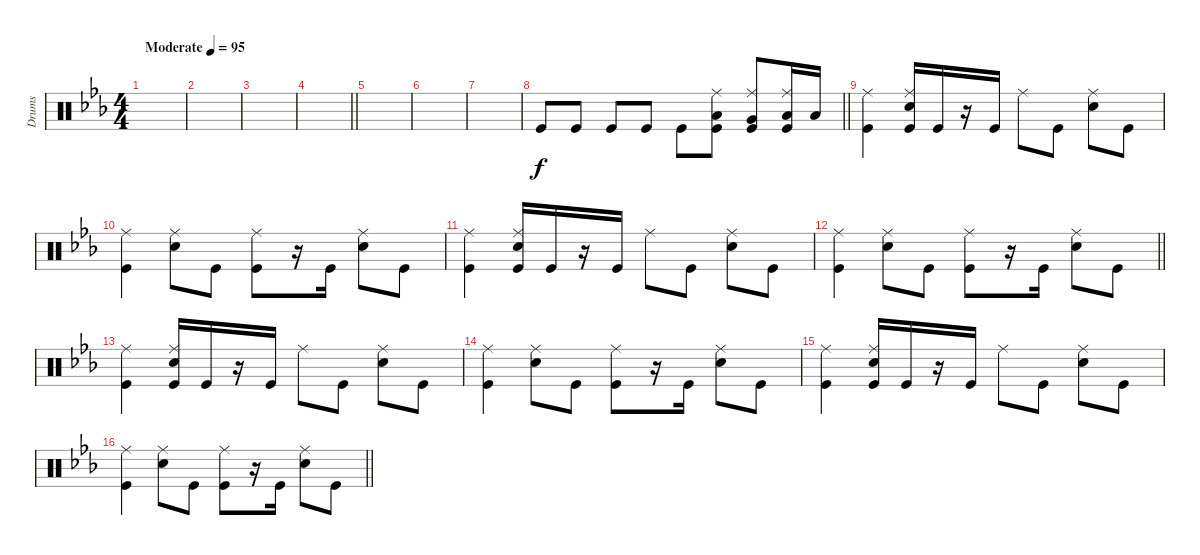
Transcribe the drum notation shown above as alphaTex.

\track ("Drums" "Drums") {instrument percussion}
\staff {score}
\articulation defaults
\ts (4 4)
\tempo (95 "Moderate")
\clef neutral
\ks eb
|
|
|
\barLineRight lightlight
|
|
|
|
\barLineRight lightlight "Kick (hit)".8 "Kick (hit)".8 "Kick (hit)".8 "Kick (hit)".8 "Kick (hit)".8
("Kick (hit)" "Low Floor Tom (hit)" "Ride (middle)").8 ("Kick (hit)" "Very Low Tom (hit)" "Ride (middle)").8 ("Kick (hit)" "Low Tom (hit)" "Ride (middle)").16 "Low Tom (hit)".16 |
("Kick (hit)" "Ride (middle)").4 ("Kick (hit)" "Ride (middle)" "Snare (hit) 2").16 "Kick (hit)".16 r.16 "Kick (hit)".16 "Ride (middle)".8 "Kick (hit)".8 ("Ride (middle)" "Snare (hit) 2").8 "Kick (hit)".8 |
("Kick (hit)" "Ride (middle)").4 ("Ride (middle)" "Snare (hit) 2").8 "Kick (hit)".8 ("Kick (hit)" "Ride (middle)").8 r.16 "Kick (hit)".16 ("Ride (middle)" "Snare (hit) 2").8 "Kick (hit)".8 |
("Kick (hit)" "Ride (middle)").4 ("Kick (hit)" "Ride (middle)" "Snare (hit) 2").16 "Kick (hit)".16 r.16 "Kick (hit)".16 "Ride (middle)".8 "Kick (hit)".8 ("Ride (middle)" "Snare (hit) 2").8 "Kick (hit)".8 |
\barLineRight lightlight
("Kick (hit)" "Ride (middle)").4 ("Ride (middle)" "Snare (hit) 2").8 "Kick (hit)".8 ("Kick (hit)" "Ride (middle)").8 r.16 "Kick (hit)".16 ("Ride (middle)" "Snare (hit) 2").8 "Kick (hit)".8 |
("Kick (hit)" "Ride (middle)").4 ("Kick (hit)" "Ride (middle)" "Snare (hit) 2").16 "Kick (hit)".16 r.16 "Kick (hit)".16 "Ride (middle)".8 "Kick (hit)".8 ("Ride (middle)" "Snare (hit) 2").8 "Kick (hit)".8 |
("Kick (hit)" "Ride (middle)").4 ("Ride (middle)" "Snare (hit) 2").8 "Kick (hit)".8 ("Kick (hit)" "Ride (middle)").8 r.16 "Kick (hit)".16 ("Ride (middle)" "Snare (hit) 2").8 "Kick (hit)".8 |
("Kick (hit)" "Ride (middle)").4 ("Kick (hit)" "Ride (middle)" "Snare (hit) 2").16 "Kick (hit)".16 r.16 "Kick (hit)".16 "Ride (middle)".8 "Kick (hit)".8 ("Ride (middle)" "Snare (hit) 2").8 "Kick (hit)".8 |
\barLineRight lightlight
("Kick (hit)" "Ride (middle)").4 ("Ride (middle)" "Snare (hit) 2").8 "Kick (hit)".8 ("Kick (hit)" "Ride (middle)").8 r.16 "Kick (hit)".16 ("Ride (middle)" "Snare (hit) 2").8 "Kick (hit)".8
